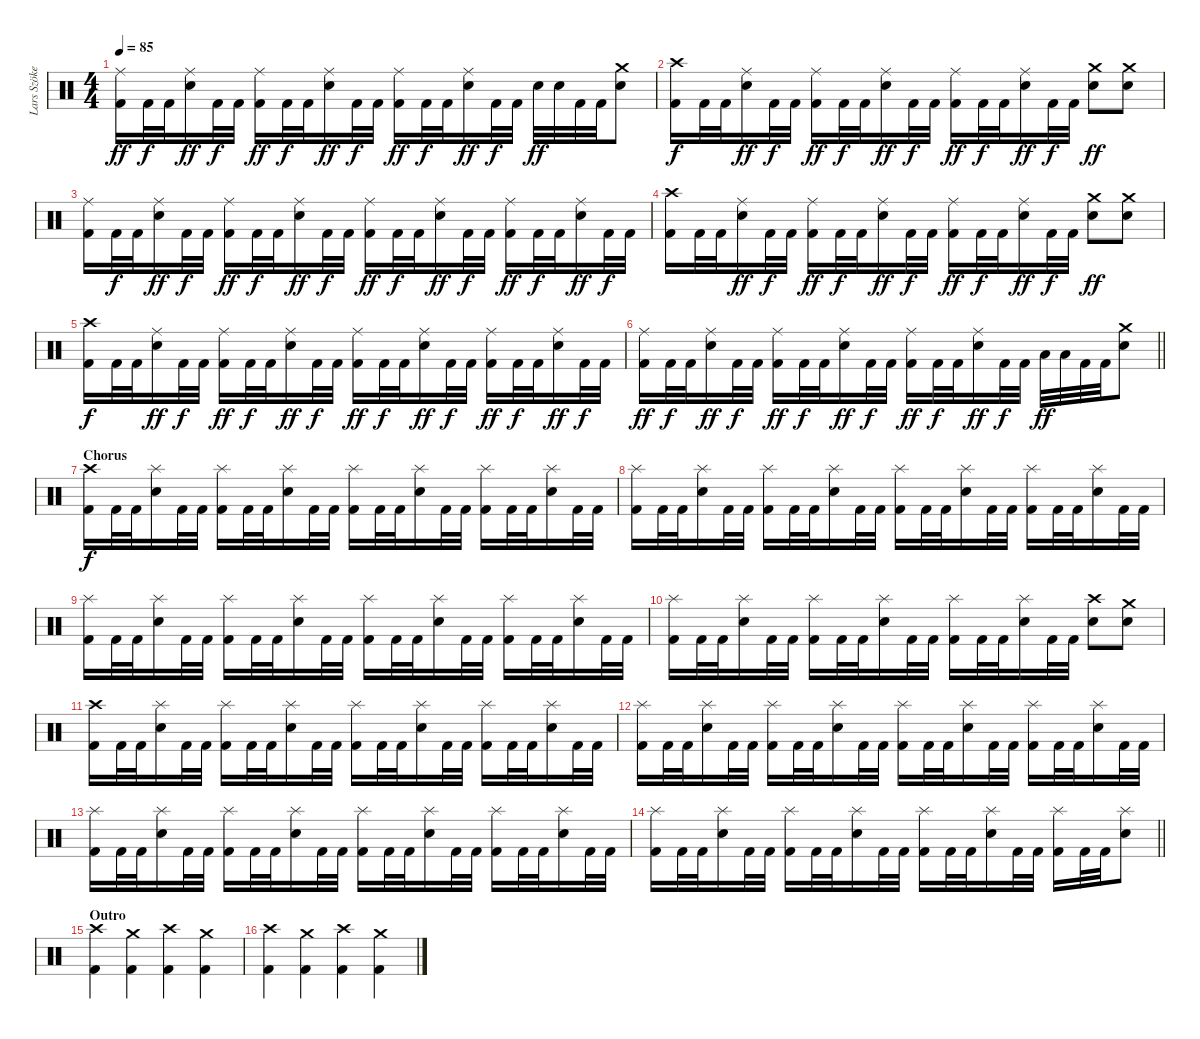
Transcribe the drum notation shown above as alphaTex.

\track ("Lars Szöke" "Lars Szöke") {instrument percussion}
\staff {score}
\articulation defaults
\ts (4 4)
\tempo 85
\clef neutral
\ks c
("Ride (middle)" "Kick (hit) 2").16{dy ff} "Kick (hit) 2".32{dy f} "Kick (hit) 2".32 ("Ride (middle)" "Snare (hit) 2").16{dy ff} "Kick (hit) 2".32{dy f} "Kick (hit) 2".32 ("Ride (middle)" "Kick (hit) 2").16{dy ff} "Kick (hit) 2".32{dy f} "Kick (hit) 2".32 ("Ride (middle)" "Snare (hit) 2").16{dy ff} "Kick (hit) 2".32{dy f} "Kick (hit) 2".32 ("Ride (middle)" "Kick (hit) 2").16{dy ff} "Kick (hit) 2".32{dy f} "Kick (hit) 2".32 ("Ride (middle)" "Snare (hit) 2").16{dy ff} "Kick (hit) 2".32{dy f} "Kick (hit) 2".32 "Snare (hit) 2".32{dy ff} "Snare (hit) 2".32 "Kick (hit) 2".32 "Kick (hit) 2".32 ("Crash medium (hit)" "Snare (hit) 2").8 |
("Crash high (hit)" "Kick (hit) 2").16{dy f} "Kick (hit) 2".32 "Kick (hit) 2".32 ("Ride (middle)" "Snare (hit) 2").16{dy ff} "Kick (hit) 2".32{dy f} "Kick (hit) 2".32 ("Ride (middle)" "Kick (hit) 2").16{dy ff} "Kick (hit) 2".32{dy f} "Kick (hit) 2".32 ("Ride (middle)" "Snare (hit) 2").16{dy ff} "Kick (hit) 2".32{dy f} "Kick (hit) 2".32 ("Ride (middle)" "Kick (hit) 2").16{dy ff} "Kick (hit) 2".32{dy f} "Kick (hit) 2".32 ("Ride (middle)" "Snare (hit) 2").16{dy ff} "Kick (hit) 2".32{dy f} "Kick (hit) 2".32 ("Crash medium (hit)" "Snare (hit) 2").8{dy ff} ("Crash medium (hit)" "Snare (hit) 2").8 |
("Ride (middle)" "Kick (hit) 2").16 "Kick (hit) 2".32{dy f} "Kick (hit) 2".32 ("Ride (middle)" "Snare (hit) 2").16{dy ff} "Kick (hit) 2".32{dy f} "Kick (hit) 2".32 ("Ride (middle)" "Kick (hit) 2").16{dy ff} "Kick (hit) 2".32{dy f} "Kick (hit) 2".32 ("Ride (middle)" "Snare (hit) 2").16{dy ff} "Kick (hit) 2".32{dy f} "Kick (hit) 2".32 ("Ride (middle)" "Kick (hit) 2").16{dy ff} "Kick (hit) 2".32{dy f} "Kick (hit) 2".32 ("Ride (middle)" "Snare (hit) 2").16{dy ff} "Kick (hit) 2".32{dy f} "Kick (hit) 2".32 ("Ride (middle)" "Kick (hit) 2").16{dy ff} "Kick (hit) 2".32{dy f} "Kick (hit) 2".32 ("Ride (middle)" "Snare (hit) 2").16{dy ff} "Kick (hit) 2".32{dy f} "Kick (hit) 2".32 |
("Crash high (hit)" "Kick (hit) 2").16 "Kick (hit) 2".32 "Kick (hit) 2".32 ("Ride (middle)" "Snare (hit) 2").16{dy ff} "Kick (hit) 2".32{dy f} "Kick (hit) 2".32 ("Ride (middle)" "Kick (hit) 2").16{dy ff} "Kick (hit) 2".32{dy f} "Kick (hit) 2".32 ("Ride (middle)" "Snare (hit) 2").16{dy ff} "Kick (hit) 2".32{dy f} "Kick (hit) 2".32 ("Ride (middle)" "Kick (hit) 2").16{dy ff} "Kick (hit) 2".32{dy f} "Kick (hit) 2".32 ("Ride (middle)" "Snare (hit) 2").16{dy ff} "Kick (hit) 2".32{dy f} "Kick (hit) 2".32 ("Crash medium (hit)" "Snare (hit) 2").8{dy ff} ("Crash medium (hit)" "Snare (hit) 2").8 |
("Crash high (hit)" "Kick (hit) 2").16{dy f} "Kick (hit) 2".32 "Kick (hit) 2".32 ("Ride (middle)" "Snare (hit) 2").16{dy ff} "Kick (hit) 2".32{dy f} "Kick (hit) 2".32 ("Ride (middle)" "Kick (hit) 2").16{dy ff} "Kick (hit) 2".32{dy f} "Kick (hit) 2".32 ("Ride (middle)" "Snare (hit) 2").16{dy ff} "Kick (hit) 2".32{dy f} "Kick (hit) 2".32 ("Ride (middle)" "Kick (hit) 2").16{dy ff} "Kick (hit) 2".32{dy f} "Kick (hit) 2".32 ("Ride (middle)" "Snare (hit) 2").16{dy ff} "Kick (hit) 2".32{dy f} "Kick (hit) 2".32 ("Ride (middle)" "Kick (hit) 2").16{dy ff} "Kick (hit) 2".32{dy f} "Kick (hit) 2".32 ("Ride (middle)" "Snare (hit) 2").16{dy ff} "Kick (hit) 2".32{dy f} "Kick (hit) 2".32 |
\barLineRight lightlight
("Ride (middle)" "Kick (hit) 2").16{dy ff} "Kick (hit) 2".32{dy f} "Kick (hit) 2".32 ("Ride (middle)" "Snare (hit) 2").16{dy ff} "Kick (hit) 2".32{dy f} "Kick (hit) 2".32 ("Ride (middle)" "Kick (hit) 2").16{dy ff} "Kick (hit) 2".32{dy f} "Kick (hit) 2".32 ("Ride (middle)" "Snare (hit) 2").16{dy ff} "Kick (hit) 2".32{dy f} "Kick (hit) 2".32 ("Ride (middle)" "Kick (hit) 2").16{dy ff} "Kick (hit) 2".32{dy f} "Kick (hit) 2".32 ("Ride (middle)" "Snare (hit) 2").16{dy ff} "Kick (hit) 2".32{dy f} "Kick (hit) 2".32 "Low Floor Tom (hit)".32{dy ff} "Low Floor Tom (hit)".32 "Kick (hit) 2".32 "Kick (hit) 2".32 ("Crash medium (hit)" "Snare (hit) 2").8 |
\section ("" "Chorus")
("Crash high (hit)" "Kick (hit) 2").16{dy f} "Kick (hit) 2".32 "Kick (hit) 2".32 ("Splash (hit)" "Snare (hit) 2").16 "Kick (hit) 2".32 "Kick (hit) 2".32 ("Splash (hit)" "Kick (hit) 2").16 "Kick (hit) 2".32 "Kick (hit) 2".32 ("Splash (hit)" "Snare (hit) 2").16 "Kick (hit) 2".32 "Kick (hit) 2".32 ("Splash (hit)" "Kick (hit) 2").16 "Kick (hit) 2".32 "Kick (hit) 2".32 ("Splash (hit)" "Snare (hit) 2").16 "Kick (hit) 2".32 "Kick (hit) 2".32 ("Splash (hit)" "Kick (hit) 2").16 "Kick (hit) 2".32 "Kick (hit) 2".32 ("Splash (hit)" "Snare (hit) 2").16 "Kick (hit) 2".32 "Kick (hit) 2".32 |
("Splash (hit)" "Kick (hit) 2").16 "Kick (hit) 2".32 "Kick (hit) 2".32 ("Splash (hit)" "Snare (hit) 2").16 "Kick (hit) 2".32 "Kick (hit) 2".32 ("Splash (hit)" "Kick (hit) 2").16 "Kick (hit) 2".32 "Kick (hit) 2".32 ("Splash (hit)" "Snare (hit) 2").16 "Kick (hit) 2".32 "Kick (hit) 2".32 ("Splash (hit)" "Kick (hit) 2").16 "Kick (hit) 2".32 "Kick (hit) 2".32 ("Splash (hit)" "Snare (hit) 2").16 "Kick (hit) 2".32 "Kick (hit) 2".32 ("Splash (hit)" "Kick (hit) 2").16 "Kick (hit) 2".32 "Kick (hit) 2".32 ("Splash (hit)" "Snare (hit) 2").16 "Kick (hit) 2".32 "Kick (hit) 2".32 |
("Splash (hit)" "Kick (hit) 2").16 "Kick (hit) 2".32 "Kick (hit) 2".32 ("Splash (hit)" "Snare (hit) 2").16 "Kick (hit) 2".32 "Kick (hit) 2".32 ("Splash (hit)" "Kick (hit) 2").16 "Kick (hit) 2".32 "Kick (hit) 2".32 ("Splash (hit)" "Snare (hit) 2").16 "Kick (hit) 2".32 "Kick (hit) 2".32 ("Splash (hit)" "Kick (hit) 2").16 "Kick (hit) 2".32 "Kick (hit) 2".32 ("Splash (hit)" "Snare (hit) 2").16 "Kick (hit) 2".32 "Kick (hit) 2".32 ("Splash (hit)" "Kick (hit) 2").16 "Kick (hit) 2".32 "Kick (hit) 2".32 ("Splash (hit)" "Snare (hit) 2").16 "Kick (hit) 2".32 "Kick (hit) 2".32 |
("Splash (hit)" "Kick (hit) 2").16 "Kick (hit) 2".32 "Kick (hit) 2".32 ("Splash (hit)" "Snare (hit) 2").16 "Kick (hit) 2".32 "Kick (hit) 2".32 ("Splash (hit)" "Kick (hit) 2").16 "Kick (hit) 2".32 "Kick (hit) 2".32 ("Splash (hit)" "Snare (hit) 2").16 "Kick (hit) 2".32 "Kick (hit) 2".32 ("Splash (hit)" "Kick (hit) 2").16 "Kick (hit) 2".32 "Kick (hit) 2".32 ("Splash (hit)" "Snare (hit) 2").16 "Kick (hit) 2".32 "Kick (hit) 2".32 ("Crash high (hit)" "Snare (hit) 2").8 ("Crash medium (hit)" "Snare (hit) 2").8 |
("Crash high (hit)" "Kick (hit) 2").16 "Kick (hit) 2".32 "Kick (hit) 2".32 ("Splash (hit)" "Snare (hit) 2").16 "Kick (hit) 2".32 "Kick (hit) 2".32 ("Splash (hit)" "Kick (hit) 2").16 "Kick (hit) 2".32 "Kick (hit) 2".32 ("Splash (hit)" "Snare (hit) 2").16 "Kick (hit) 2".32 "Kick (hit) 2".32 ("Splash (hit)" "Kick (hit) 2").16 "Kick (hit) 2".32 "Kick (hit) 2".32 ("Splash (hit)" "Snare (hit) 2").16 "Kick (hit) 2".32 "Kick (hit) 2".32 ("Splash (hit)" "Kick (hit) 2").16 "Kick (hit) 2".32 "Kick (hit) 2".32 ("Splash (hit)" "Snare (hit) 2").16 "Kick (hit) 2".32 "Kick (hit) 2".32 |
("Splash (hit)" "Kick (hit) 2").16 "Kick (hit) 2".32 "Kick (hit) 2".32 ("Splash (hit)" "Snare (hit) 2").16 "Kick (hit) 2".32 "Kick (hit) 2".32 ("Splash (hit)" "Kick (hit) 2").16 "Kick (hit) 2".32 "Kick (hit) 2".32 ("Splash (hit)" "Snare (hit) 2").16 "Kick (hit) 2".32 "Kick (hit) 2".32 ("Splash (hit)" "Kick (hit) 2").16 "Kick (hit) 2".32 "Kick (hit) 2".32 ("Splash (hit)" "Snare (hit) 2").16 "Kick (hit) 2".32 "Kick (hit) 2".32 ("Splash (hit)" "Kick (hit) 2").16 "Kick (hit) 2".32 "Kick (hit) 2".32 ("Splash (hit)" "Snare (hit) 2").16 "Kick (hit) 2".32 "Kick (hit) 2".32 |
("Splash (hit)" "Kick (hit) 2").16 "Kick (hit) 2".32 "Kick (hit) 2".32 ("Splash (hit)" "Snare (hit) 2").16 "Kick (hit) 2".32 "Kick (hit) 2".32 ("Splash (hit)" "Kick (hit) 2").16 "Kick (hit) 2".32 "Kick (hit) 2".32 ("Splash (hit)" "Snare (hit) 2").16 "Kick (hit) 2".32 "Kick (hit) 2".32 ("Splash (hit)" "Kick (hit) 2").16 "Kick (hit) 2".32 "Kick (hit) 2".32 ("Splash (hit)" "Snare (hit) 2").16 "Kick (hit) 2".32 "Kick (hit) 2".32 ("Splash (hit)" "Kick (hit) 2").16 "Kick (hit) 2".32 "Kick (hit) 2".32 ("Splash (hit)" "Snare (hit) 2").16 "Kick (hit) 2".32 "Kick (hit) 2".32 |
\barLineRight lightlight
("Splash (hit)" "Kick (hit) 2").16 "Kick (hit) 2".32 "Kick (hit) 2".32 ("Splash (hit)" "Snare (hit) 2").16 "Kick (hit) 2".32 "Kick (hit) 2".32 ("Splash (hit)" "Kick (hit) 2").16 "Kick (hit) 2".32 "Kick (hit) 2".32 ("Splash (hit)" "Snare (hit) 2").16 "Kick (hit) 2".32 "Kick (hit) 2".32 ("Splash (hit)" "Kick (hit) 2").16 "Kick (hit) 2".32 "Kick (hit) 2".32 ("Splash (hit)" "Snare (hit) 2").16 "Kick (hit) 2".32 "Kick (hit) 2".32 ("Splash (hit)" "Kick (hit) 2").16 "Kick (hit) 2".32 "Kick (hit) 2".32 ("Splash (hit)" "Snare (hit) 2").8 |
\section ("" "Outro")
("Crash high (hit)" "Kick (hit) 2").4 ("Crash medium (hit)" "Kick (hit) 2").4 ("Crash high (hit)" "Kick (hit) 2").4 ("Crash medium (hit)" "Kick (hit) 2").4 |
("Crash high (hit)" "Kick (hit) 2").4 ("Crash medium (hit)" "Kick (hit) 2").4 ("Crash high (hit)" "Kick (hit) 2").4 ("Crash medium (hit)" "Kick (hit) 2").4
